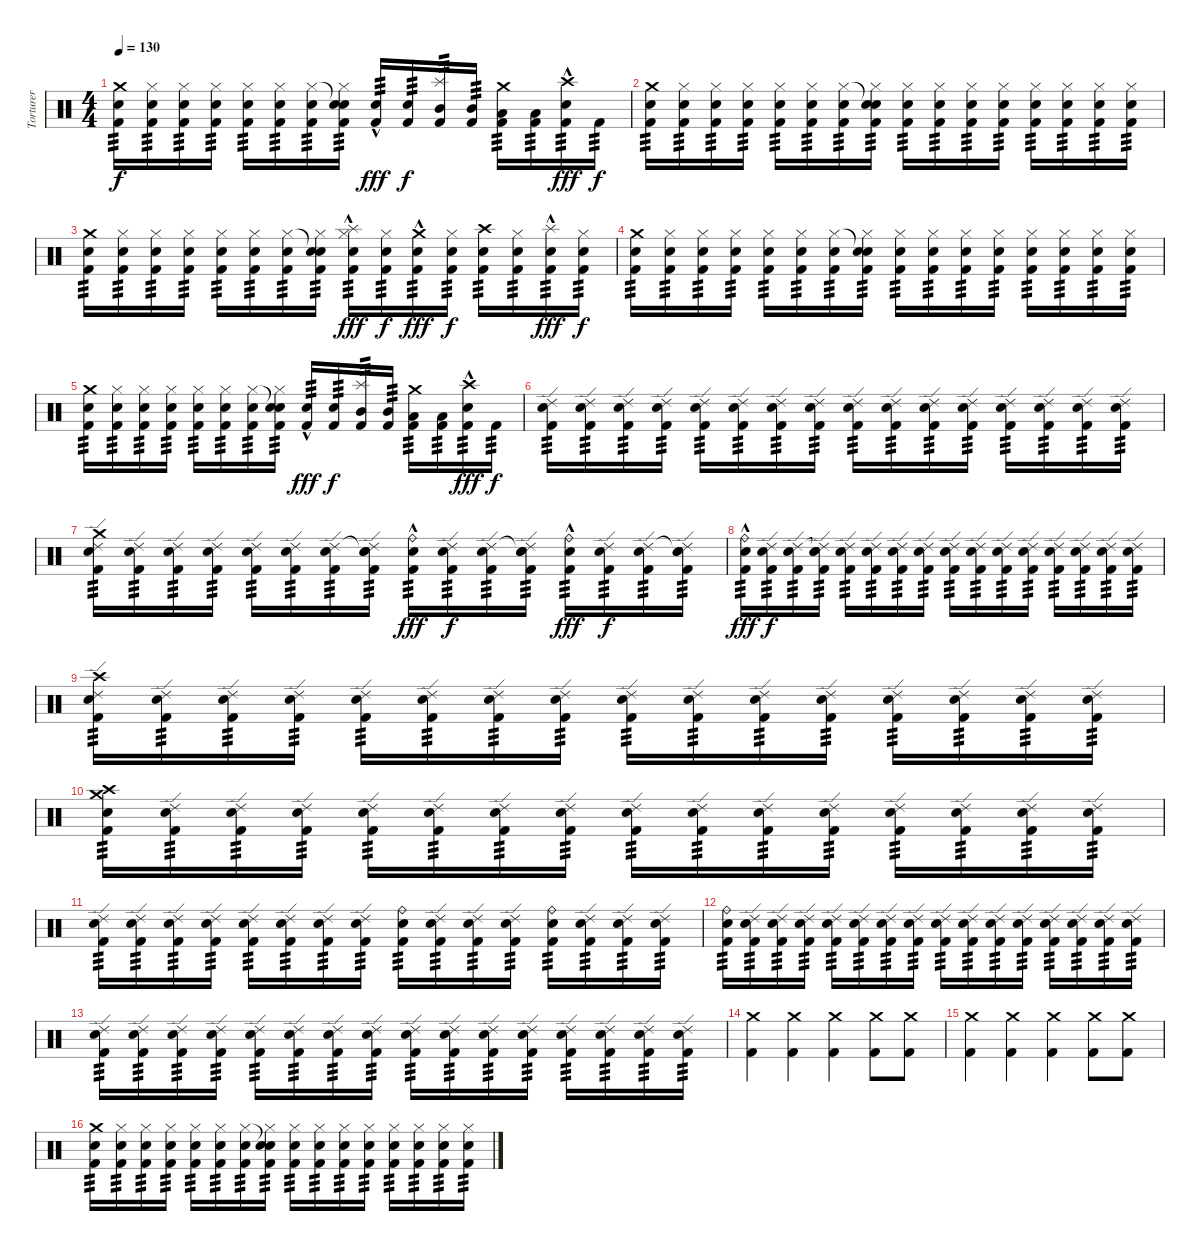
\track ("Torturer" "Torturer") {instrument percussion}
\staff {score}
\articulation defaults
\ts (4 4)
\tempo 130
\clef neutral
\ks c
("Crash medium (hit)" "Snare (hit) 2" "Kick (hit) 2").16{tp 3 dy f} ("Hi-Hat (closed)" "Snare (hit) 2" "Kick (hit) 2").16{tp 3} ("Hi-Hat (closed)" "Snare (hit) 2" "Kick (hit) 2").16{tp 3} ("Hi-Hat (closed)" "Snare (hit) 2" "Kick (hit) 2").16{tp 3} ("Hi-Hat (closed)" "Snare (hit) 2" "Kick (hit) 2").16{tp 3} ("Hi-Hat (closed)" "Snare (hit) 2" "Kick (hit) 2").16{tp 3} ("Hi-Hat (closed)" "Snare (hit) 2" "Kick (hit) 2").16{tp 3} ("Snare (hit)"{t} "Hi-Hat (closed)" "Snare (hit) 2" "Kick (hit) 2").16{tp 3} ("Snare (hit) 2"{hac} "Kick (hit) 2").16{tp 3 dy fff} ("Snare (hit) 2" "Kick (hit) 2").16{tp 3 dy f} ("Splash (hit)" "Mid Tom (hit)" "Kick (hit) 2").16{tp 3} ("Mid Tom (hit)" "Kick (hit) 2").16{tp 3} ("Crash medium (hit)" "Low Tom (hit)" "Kick (hit) 2").16{tp 3} ("Low Tom (hit)" "Kick (hit) 2").16{tp 3} ("Crash high (hit)" "Snare (hit) 2"{hac} "Kick (hit) 2").16{tp 3 dy fff} "Kick (hit) 2".16{tp 3 dy f} |
("Crash medium (hit)" "Snare (hit) 2" "Kick (hit) 2").16{tp 3} ("Hi-Hat (closed)" "Snare (hit) 2" "Kick (hit) 2").16{tp 3} ("Hi-Hat (closed)" "Snare (hit) 2" "Kick (hit) 2").16{tp 3} ("Hi-Hat (closed)" "Snare (hit) 2" "Kick (hit) 2").16{tp 3} ("Hi-Hat (closed)" "Snare (hit) 2" "Kick (hit) 2").16{tp 3} ("Hi-Hat (closed)" "Snare (hit) 2" "Kick (hit) 2").16{tp 3} ("Hi-Hat (closed)" "Snare (hit) 2" "Kick (hit) 2").16{tp 3} ("Snare (hit)"{t} "Hi-Hat (closed)" "Snare (hit) 2" "Kick (hit) 2").16{tp 3} ("Hi-Hat (closed)" "Snare (hit) 2" "Kick (hit) 2").16{tp 3} ("Hi-Hat (closed)" "Snare (hit) 2" "Kick (hit) 2").16{tp 3} ("Hi-Hat (closed)" "Snare (hit) 2" "Kick (hit) 2").16{tp 3} ("Hi-Hat (closed)" "Snare (hit) 2" "Kick (hit) 2").16{tp 3} ("Hi-Hat (closed)" "Snare (hit) 2" "Kick (hit) 2").16{tp 3} ("Hi-Hat (closed)" "Snare (hit) 2" "Kick (hit) 2").16{tp 3} ("Hi-Hat (closed)" "Snare (hit) 2" "Kick (hit) 2").16{tp 3} ("Hi-Hat (closed)" "Snare (hit) 2" "Kick (hit) 2").16{tp 3} |
("Crash medium (hit)" "Snare (hit) 2" "Kick (hit) 2").16{tp 3} ("Hi-Hat (closed)" "Snare (hit) 2" "Kick (hit) 2").16{tp 3} ("Hi-Hat (closed)" "Snare (hit) 2" "Kick (hit) 2").16{tp 3} ("Hi-Hat (closed)" "Snare (hit) 2" "Kick (hit) 2").16{tp 3} ("Hi-Hat (closed)" "Snare (hit) 2" "Kick (hit) 2").16{tp 3} ("Hi-Hat (closed)" "Snare (hit) 2" "Kick (hit) 2").16{tp 3} ("Hi-Hat (closed)" "Snare (hit) 2" "Kick (hit) 2").16{tp 3} ("Snare (hit)"{t} "Hi-Hat (closed)" "Snare (hit) 2" "Kick (hit) 2").16{tp 3} ("Splash (hit)"{hac} "Hi-Hat (closed)" "Snare (hit) 2" "Kick (hit) 2").16{tp 3 dy fff} ("Hi-Hat (closed)" "Snare (hit) 2" "Kick (hit) 2").16{tp 3 dy f} ("Crash medium (hit)"{hac} "Snare (hit) 2" "Kick (hit) 2").16{tp 3 dy fff} ("Hi-Hat (closed)" "Snare (hit) 2" "Kick (hit) 2").16{tp 3 dy f} ("Crash high (hit)" "Snare (hit) 2" "Kick (hit) 2").16{tp 3} ("Hi-Hat (closed)" "Snare (hit) 2" "Kick (hit) 2").16{tp 3} ("Splash (hit)"{hac} "Snare (hit) 2" "Kick (hit) 2").16{tp 3 dy fff} ("Hi-Hat (closed)" "Snare (hit) 2" "Kick (hit) 2").16{tp 3 dy f} |
("Crash medium (hit)" "Snare (hit) 2" "Kick (hit) 2").16{tp 3} ("Hi-Hat (closed)" "Snare (hit) 2" "Kick (hit) 2").16{tp 3} ("Hi-Hat (closed)" "Snare (hit) 2" "Kick (hit) 2").16{tp 3} ("Hi-Hat (closed)" "Snare (hit) 2" "Kick (hit) 2").16{tp 3} ("Hi-Hat (closed)" "Snare (hit) 2" "Kick (hit) 2").16{tp 3} ("Hi-Hat (closed)" "Snare (hit) 2" "Kick (hit) 2").16{tp 3} ("Hi-Hat (closed)" "Snare (hit) 2" "Kick (hit) 2").16{tp 3} ("Snare (hit)"{t} "Hi-Hat (closed)" "Snare (hit) 2" "Kick (hit) 2").16{tp 3} ("Hi-Hat (closed)" "Snare (hit) 2" "Kick (hit) 2").16{tp 3} ("Hi-Hat (closed)" "Snare (hit) 2" "Kick (hit) 2").16{tp 3} ("Hi-Hat (closed)" "Snare (hit) 2" "Kick (hit) 2").16{tp 3} ("Hi-Hat (closed)" "Snare (hit) 2" "Kick (hit) 2").16{tp 3} ("Hi-Hat (closed)" "Snare (hit) 2" "Kick (hit) 2").16{tp 3} ("Hi-Hat (closed)" "Snare (hit) 2" "Kick (hit) 2").16{tp 3} ("Hi-Hat (closed)" "Snare (hit) 2" "Kick (hit) 2").16{tp 3} ("Hi-Hat (closed)" "Snare (hit) 2" "Kick (hit) 2").16{tp 3} |
("Crash medium (hit)" "Snare (hit) 2" "Kick (hit) 2").16{tp 3} ("Hi-Hat (closed)" "Snare (hit) 2" "Kick (hit) 2").16{tp 3} ("Hi-Hat (closed)" "Snare (hit) 2" "Kick (hit) 2").16{tp 3} ("Hi-Hat (closed)" "Snare (hit) 2" "Kick (hit) 2").16{tp 3} ("Hi-Hat (closed)" "Snare (hit) 2" "Kick (hit) 2").16{tp 3} ("Hi-Hat (closed)" "Snare (hit) 2" "Kick (hit) 2").16{tp 3} ("Hi-Hat (closed)" "Snare (hit) 2" "Kick (hit) 2").16{tp 3} ("Snare (hit)"{t} "Hi-Hat (closed)" "Snare (hit) 2" "Kick (hit) 2").16{tp 3} ("Snare (hit) 2"{hac} "Kick (hit) 2").16{tp 3 dy fff} ("Snare (hit) 2" "Kick (hit) 2").16{tp 3 dy f} ("Splash (hit)" "Mid Tom (hit)" "Kick (hit) 2").16{tp 3} ("Mid Tom (hit)" "Kick (hit) 2").16{tp 3} ("Crash medium (hit)" "Low Tom (hit)" "Kick (hit) 2").16{tp 3} ("Low Tom (hit)" "Kick (hit) 2").16{tp 3} ("Crash high (hit)" "Snare (hit) 2"{hac} "Kick (hit) 2").16{tp 3 dy fff} "Kick (hit) 2".16{tp 3 dy f} |
("Ride (edge) 2" "Snare (hit) 2" "Kick (hit) 2").16{tp 3} ("Ride (edge) 2" "Snare (hit) 2" "Kick (hit) 2").16{tp 3} ("Ride (edge) 2" "Snare (hit) 2" "Kick (hit) 2").16{tp 3} ("Ride (edge) 2" "Snare (hit) 2" "Kick (hit) 2").16{tp 3} ("Ride (edge) 2" "Snare (hit) 2" "Kick (hit) 2").16{tp 3} ("Ride (edge) 2" "Snare (hit) 2" "Kick (hit) 2").16{tp 3} ("Ride (edge) 2" "Snare (hit) 2" "Kick (hit) 2").16{tp 3} ("Ride (edge) 2" "Snare (hit) 2" "Kick (hit) 2").16{tp 3} ("Ride (edge) 2" "Snare (hit) 2" "Kick (hit) 2").16{tp 3} ("Ride (edge) 2" "Snare (hit) 2" "Kick (hit) 2").16{tp 3} ("Ride (edge) 2" "Snare (hit) 2" "Kick (hit) 2").16{tp 3} ("Ride (edge) 2" "Snare (hit) 2" "Kick (hit) 2").16{tp 3} ("Ride (edge) 2" "Snare (hit) 2" "Kick (hit) 2").16{tp 3} ("Ride (edge) 2" "Snare (hit) 2" "Kick (hit) 2").16{tp 3} ("Ride (edge) 2" "Snare (hit) 2" "Kick (hit) 2").16{tp 3} ("Ride (edge) 2" "Snare (hit) 2" "Kick (hit) 2").16{tp 3} |
("Crash medium (hit)" "Ride (edge) 2" "Snare (hit) 2" "Kick (hit) 2").16{tp 3} ("Ride (edge) 2" "Snare (hit) 2" "Kick (hit) 2").16{tp 3} ("Ride (edge) 2" "Snare (hit) 2" "Kick (hit) 2").16{tp 3} ("Ride (edge) 2" "Snare (hit) 2" "Kick (hit) 2").16{tp 3} ("Ride (edge) 2" "Snare (hit) 2" "Kick (hit) 2").16{tp 3} ("Ride (edge) 2" "Snare (hit) 2" "Kick (hit) 2").16{tp 3} ("Ride (edge) 2" "Snare (hit) 2" "Kick (hit) 2").16{tp 3} ("Snare (hit)"{t} "Ride (edge) 2" "Snare (hit) 2" "Kick (hit) 2").16{tp 3} ("Ride (bell)"{hac} "Snare (hit) 2" "Kick (hit) 2").16{tp 3 dy fff} ("Ride (edge) 2" "Snare (hit) 2" "Kick (hit) 2").16{tp 3 dy f} ("Ride (edge) 2" "Snare (hit) 2" "Kick (hit) 2").16{tp 3} ("Snare (hit)"{t} "Ride (edge) 2" "Snare (hit) 2" "Kick (hit) 2").16{tp 3} ("Ride (bell)"{hac} "Snare (hit) 2" "Kick (hit) 2").16{tp 3 dy fff} ("Ride (edge) 2" "Snare (hit) 2" "Kick (hit) 2").16{tp 3 dy f} ("Ride (edge) 2" "Snare (hit) 2" "Kick (hit) 2").16{tp 3} ("Snare (hit)"{t} "Ride (edge) 2" "Snare (hit) 2" "Kick (hit) 2").16{tp 3} |
("Ride (bell)"{hac} "Snare (hit) 2" "Kick (hit) 2").16{tp 3 dy fff} ("Ride (edge) 2" "Snare (hit) 2" "Kick (hit) 2").16{tp 3 dy f} ("Ride (edge) 2" "Snare (hit) 2" "Kick (hit) 2").16{tp 3} ("Snare (hit)"{t} "Ride (edge) 2" "Snare (hit) 2" "Kick (hit) 2").16{tp 3} ("Ride (edge) 2" "Snare (hit) 2" "Kick (hit) 2").16{tp 3} ("Ride (edge) 2" "Snare (hit) 2" "Kick (hit) 2").16{tp 3} ("Ride (edge) 2" "Snare (hit) 2" "Kick (hit) 2").16{tp 3} ("Ride (edge) 2" "Snare (hit) 2" "Kick (hit) 2").16{tp 3} ("Ride (edge) 2" "Snare (hit) 2" "Kick (hit) 2").16{tp 3} ("Ride (edge) 2" "Snare (hit) 2" "Kick (hit) 2").16{tp 3} ("Ride (edge) 2" "Snare (hit) 2" "Kick (hit) 2").16{tp 3} ("Ride (edge) 2" "Snare (hit) 2" "Kick (hit) 2").16{tp 3} ("Ride (edge) 2" "Snare (hit) 2" "Kick (hit) 2").16{tp 3} ("Ride (edge) 2" "Snare (hit) 2" "Kick (hit) 2").16{tp 3} ("Ride (edge) 2" "Snare (hit) 2" "Kick (hit) 2").16{tp 3} ("Ride (edge) 2" "Snare (hit) 2" "Kick (hit) 2").16{tp 3} |
("Crash high (hit)" "Ride (edge) 2" "Snare (hit) 2" "Kick (hit) 2").16{tp 3} ("Ride (edge) 2" "Snare (hit) 2" "Kick (hit) 2").16{tp 3} ("Ride (edge) 2" "Snare (hit) 2" "Kick (hit) 2").16{tp 3} ("Ride (edge) 2" "Snare (hit) 2" "Kick (hit) 2").16{tp 3} ("Ride (edge) 2" "Snare (hit) 2" "Kick (hit) 2").16{tp 3} ("Ride (edge) 2" "Snare (hit) 2" "Kick (hit) 2").16{tp 3} ("Ride (edge) 2" "Snare (hit) 2" "Kick (hit) 2").16{tp 3} ("Ride (edge) 2" "Snare (hit) 2" "Kick (hit) 2").16{tp 3} ("Ride (edge) 2" "Snare (hit) 2" "Kick (hit) 2").16{tp 3} ("Ride (edge) 2" "Snare (hit) 2" "Kick (hit) 2").16{tp 3} ("Ride (edge) 2" "Snare (hit) 2" "Kick (hit) 2").16{tp 3} ("Ride (edge) 2" "Snare (hit) 2" "Kick (hit) 2").16{tp 3} ("Ride (edge) 2" "Snare (hit) 2" "Kick (hit) 2").16{tp 3} ("Ride (edge) 2" "Snare (hit) 2" "Kick (hit) 2").16{tp 3} ("Ride (edge) 2" "Snare (hit) 2" "Kick (hit) 2").16{tp 3} ("Ride (edge) 2" "Snare (hit) 2" "Kick (hit) 2").16{tp 3} |
("Crash high (hit)" "Crash medium (hit)" "Snare (hit) 2" "Kick (hit) 2").16{tp 3} ("Ride (edge) 2" "Snare (hit) 2" "Kick (hit) 2").16{tp 3} ("Ride (edge) 2" "Snare (hit) 2" "Kick (hit) 2").16{tp 3} ("Ride (edge) 2" "Snare (hit) 2" "Kick (hit) 2").16{tp 3} ("Ride (edge) 2" "Snare (hit) 2" "Kick (hit) 2").16{tp 3} ("Ride (edge) 2" "Snare (hit) 2" "Kick (hit) 2").16{tp 3} ("Ride (edge) 2" "Snare (hit) 2" "Kick (hit) 2").16{tp 3} ("Ride (edge) 2" "Snare (hit) 2" "Kick (hit) 2").16{tp 3} ("Ride (edge) 2" "Snare (hit) 2" "Kick (hit) 2").16{tp 3} ("Ride (edge) 2" "Snare (hit) 2" "Kick (hit) 2").16{tp 3} ("Ride (edge) 2" "Snare (hit) 2" "Kick (hit) 2").16{tp 3} ("Ride (edge) 2" "Snare (hit) 2" "Kick (hit) 2").16{tp 3} ("Ride (edge) 2" "Snare (hit) 2" "Kick (hit) 2").16{tp 3} ("Ride (edge) 2" "Snare (hit) 2" "Kick (hit) 2").16{tp 3} ("Ride (edge) 2" "Snare (hit) 2" "Kick (hit) 2").16{tp 3} ("Ride (edge) 2" "Snare (hit) 2" "Kick (hit) 2").16{tp 3} |
("Ride (edge) 2" "Snare (hit) 2" "Kick (hit) 2").16{tp 3} ("Ride (edge) 2" "Snare (hit) 2" "Kick (hit) 2").16{tp 3} ("Ride (edge) 2" "Snare (hit) 2" "Kick (hit) 2").16{tp 3} ("Ride (edge) 2" "Snare (hit) 2" "Kick (hit) 2").16{tp 3} ("Ride (edge) 2" "Snare (hit) 2" "Kick (hit) 2").16{tp 3} ("Ride (edge) 2" "Snare (hit) 2" "Kick (hit) 2").16{tp 3} ("Ride (edge) 2" "Snare (hit) 2" "Kick (hit) 2").16{tp 3} ("Ride (edge) 2" "Snare (hit) 2" "Kick (hit) 2").16{tp 3} ("Ride (bell)" "Snare (hit) 2" "Kick (hit) 2").16{tp 3} ("Ride (edge) 2" "Snare (hit) 2" "Kick (hit) 2").16{tp 3} ("Ride (edge) 2" "Snare (hit) 2" "Kick (hit) 2").16{tp 3} ("Ride (edge) 2" "Snare (hit) 2" "Kick (hit) 2").16{tp 3} ("Ride (bell)" "Snare (hit) 2" "Kick (hit) 2").16{tp 3} ("Ride (edge) 2" "Snare (hit) 2" "Kick (hit) 2").16{tp 3} ("Ride (edge) 2" "Snare (hit) 2" "Kick (hit) 2").16{tp 3} ("Ride (edge) 2" "Snare (hit) 2" "Kick (hit) 2").16{tp 3} |
("Ride (bell)" "Snare (hit) 2" "Kick (hit) 2").16{tp 3} ("Ride (edge) 2" "Snare (hit) 2" "Kick (hit) 2").16{tp 3} ("Ride (edge) 2" "Snare (hit) 2" "Kick (hit) 2").16{tp 3} ("Ride (edge) 2" "Snare (hit) 2" "Kick (hit) 2").16{tp 3} ("Ride (edge) 2" "Snare (hit) 2" "Kick (hit) 2").16{tp 3} ("Ride (edge) 2" "Snare (hit) 2" "Kick (hit) 2").16{tp 3} ("Ride (edge) 2" "Snare (hit) 2" "Kick (hit) 2").16{tp 3} ("Ride (edge) 2" "Snare (hit) 2" "Kick (hit) 2").16{tp 3} ("Ride (edge) 2" "Snare (hit) 2" "Kick (hit) 2").16{tp 3} ("Ride (edge) 2" "Snare (hit) 2" "Kick (hit) 2").16{tp 3} ("Ride (edge) 2" "Snare (hit) 2" "Kick (hit) 2").16{tp 3} ("Ride (edge) 2" "Snare (hit) 2" "Kick (hit) 2").16{tp 3} ("Ride (edge) 2" "Snare (hit) 2" "Kick (hit) 2").16{tp 3} ("Ride (edge) 2" "Snare (hit) 2" "Kick (hit) 2").16{tp 3} ("Ride (edge) 2" "Snare (hit) 2" "Kick (hit) 2").16{tp 3} ("Ride (edge) 2" "Snare (hit) 2" "Kick (hit) 2").16{tp 3} |
("Ride (edge) 2" "Snare (hit) 2" "Kick (hit) 2").16{tp 3} ("Ride (edge) 2" "Snare (hit) 2" "Kick (hit) 2").16{tp 3} ("Ride (edge) 2" "Snare (hit) 2" "Kick (hit) 2").16{tp 3} ("Ride (edge) 2" "Snare (hit) 2" "Kick (hit) 2").16{tp 3} ("Ride (edge) 2" "Snare (hit) 2" "Kick (hit) 2").16{tp 3} ("Ride (edge) 2" "Snare (hit) 2" "Kick (hit) 2").16{tp 3} ("Ride (edge) 2" "Snare (hit) 2" "Kick (hit) 2").16{tp 3} ("Ride (edge) 2" "Snare (hit) 2" "Kick (hit) 2").16{tp 3} ("Ride (edge) 2" "Snare (hit) 2" "Kick (hit) 2").16{tp 3} ("Ride (edge) 2" "Snare (hit) 2" "Kick (hit) 2").16{tp 3} ("Ride (edge) 2" "Snare (hit) 2" "Kick (hit) 2").16{tp 3} ("Ride (edge) 2" "Snare (hit) 2" "Kick (hit) 2").16{tp 3} ("Ride (edge) 2" "Snare (hit) 2" "Kick (hit) 2").16{tp 3} ("Ride (edge) 2" "Snare (hit) 2" "Kick (hit) 2").16{tp 3} ("Ride (edge) 2" "Snare (hit) 2" "Kick (hit) 2").16{tp 3} ("Ride (edge) 2" "Snare (hit) 2" "Kick (hit) 2").16{tp 3} |
("Crash medium (hit)" "Kick (hit) 2").4 ("Crash medium (hit)" "Kick (hit) 2").4 ("Crash medium (hit)" "Kick (hit) 2").4 ("Crash medium (hit)" "Kick (hit) 2").8 ("Crash medium (hit)" "Kick (hit) 2").8 |
("Crash medium (hit)" "Kick (hit) 2").4 ("Crash medium (hit)" "Kick (hit) 2").4 ("Crash medium (hit)" "Kick (hit) 2").4 ("Crash medium (hit)" "Kick (hit) 2").8 ("Crash medium (hit)" "Kick (hit) 2").8 |
("Crash medium (hit)" "Snare (hit) 2" "Kick (hit) 2").16{tp 3} ("Hi-Hat (closed)" "Snare (hit) 2" "Kick (hit) 2").16{tp 3} ("Hi-Hat (closed)" "Snare (hit) 2" "Kick (hit) 2").16{tp 3} ("Hi-Hat (closed)" "Snare (hit) 2" "Kick (hit) 2").16{tp 3} ("Hi-Hat (closed)" "Snare (hit) 2" "Kick (hit) 2").16{tp 3} ("Hi-Hat (closed)" "Snare (hit) 2" "Kick (hit) 2").16{tp 3} ("Hi-Hat (closed)" "Snare (hit) 2" "Kick (hit) 2").16{tp 3} ("Snare (hit)"{t} "Hi-Hat (closed)" "Snare (hit) 2" "Kick (hit) 2").16{tp 3} ("Hi-Hat (closed)" "Snare (hit) 2" "Kick (hit) 2").16{tp 3} ("Hi-Hat (closed)" "Snare (hit) 2" "Kick (hit) 2").16{tp 3} ("Hi-Hat (closed)" "Snare (hit) 2" "Kick (hit) 2").16{tp 3} ("Hi-Hat (closed)" "Snare (hit) 2" "Kick (hit) 2").16{tp 3} ("Hi-Hat (closed)" "Snare (hit) 2" "Kick (hit) 2").16{tp 3} ("Hi-Hat (closed)" "Snare (hit) 2" "Kick (hit) 2").16{tp 3} ("Hi-Hat (closed)" "Snare (hit) 2" "Kick (hit) 2").16{tp 3} ("Hi-Hat (closed)" "Snare (hit) 2" "Kick (hit) 2").16{tp 3}
